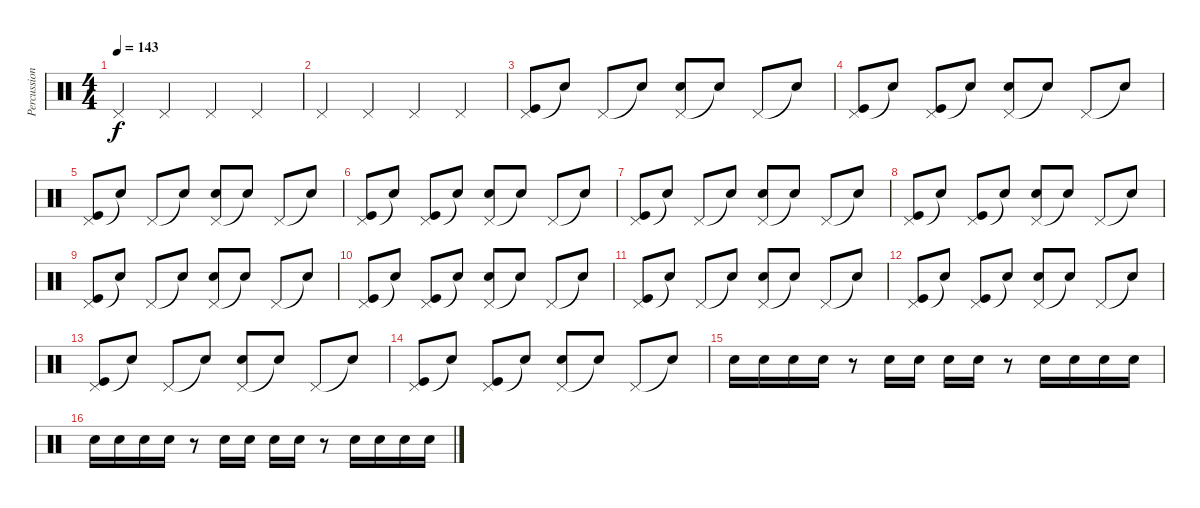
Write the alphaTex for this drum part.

\track ("Percussions" "Percussion") {instrument percussion}
\staff {score}
\articulation defaults
\ts (4 4)
\tempo 143
\clef neutral
\ks c "Pedal Hi-Hat (hit)".4{dy f} "Pedal Hi-Hat (hit)".4 "Pedal Hi-Hat (hit)".4 "Pedal Hi-Hat (hit)".4
|
"Pedal Hi-Hat (hit)".4 "Pedal Hi-Hat (hit)".4 "Pedal Hi-Hat (hit)".4 "Pedal Hi-Hat (hit)".4 |
("Pedal Hi-Hat (hit)" "Kick (hit)").8 "Snare (hit)"{t}.8 "Pedal Hi-Hat (hit)".8 "Snare (hit)"{t}.8 ("Pedal Hi-Hat (hit)" "Snare (hit) 2").8 "Snare (hit)"{t}.8 "Pedal Hi-Hat (hit)".8 "Snare (hit)"{t}.8 |
("Pedal Hi-Hat (hit)" "Kick (hit)").8 "Snare (hit)"{t}.8 ("Pedal Hi-Hat (hit)" "Kick (hit)").8 "Snare (hit)"{t}.8 ("Pedal Hi-Hat (hit)" "Snare (hit) 2").8 "Snare (hit)"{t}.8 "Pedal Hi-Hat (hit)".8 "Snare (hit)"{t}.8 |
("Pedal Hi-Hat (hit)" "Kick (hit)").8 "Snare (hit)"{t}.8 "Pedal Hi-Hat (hit)".8 "Snare (hit)"{t}.8 ("Pedal Hi-Hat (hit)" "Snare (hit) 2").8 "Snare (hit)"{t}.8 "Pedal Hi-Hat (hit)".8 "Snare (hit)"{t}.8 |
("Pedal Hi-Hat (hit)" "Kick (hit)").8 "Snare (hit)"{t}.8 ("Pedal Hi-Hat (hit)" "Kick (hit)").8 "Snare (hit)"{t}.8 ("Pedal Hi-Hat (hit)" "Snare (hit) 2").8 "Snare (hit)"{t}.8 "Pedal Hi-Hat (hit)".8 "Snare (hit)"{t}.8 |
("Pedal Hi-Hat (hit)" "Kick (hit)").8 "Snare (hit)"{t}.8 "Pedal Hi-Hat (hit)".8 "Snare (hit)"{t}.8 ("Pedal Hi-Hat (hit)" "Snare (hit) 2").8 "Snare (hit)"{t}.8 "Pedal Hi-Hat (hit)".8 "Snare (hit)"{t}.8 |
("Pedal Hi-Hat (hit)" "Kick (hit)").8 "Snare (hit)"{t}.8 ("Pedal Hi-Hat (hit)" "Kick (hit)").8 "Snare (hit)"{t}.8 ("Pedal Hi-Hat (hit)" "Snare (hit) 2").8 "Snare (hit)"{t}.8 "Pedal Hi-Hat (hit)".8 "Snare (hit)"{t}.8 |
("Pedal Hi-Hat (hit)" "Kick (hit)").8 "Snare (hit)"{t}.8 "Pedal Hi-Hat (hit)".8 "Snare (hit)"{t}.8 ("Pedal Hi-Hat (hit)" "Snare (hit) 2").8 "Snare (hit)"{t}.8 "Pedal Hi-Hat (hit)".8 "Snare (hit)"{t}.8 |
("Pedal Hi-Hat (hit)" "Kick (hit)").8 "Snare (hit)"{t}.8 ("Pedal Hi-Hat (hit)" "Kick (hit)").8 "Snare (hit)"{t}.8 ("Pedal Hi-Hat (hit)" "Snare (hit) 2").8 "Snare (hit)"{t}.8 "Pedal Hi-Hat (hit)".8 "Snare (hit)"{t}.8 |
("Pedal Hi-Hat (hit)" "Kick (hit)").8 "Snare (hit)"{t}.8 "Pedal Hi-Hat (hit)".8 "Snare (hit)"{t}.8 ("Pedal Hi-Hat (hit)" "Snare (hit) 2").8 "Snare (hit)"{t}.8 "Pedal Hi-Hat (hit)".8 "Snare (hit)"{t}.8 |
("Pedal Hi-Hat (hit)" "Kick (hit)").8 "Snare (hit)"{t}.8 ("Pedal Hi-Hat (hit)" "Kick (hit)").8 "Snare (hit)"{t}.8 ("Pedal Hi-Hat (hit)" "Snare (hit) 2").8 "Snare (hit)"{t}.8 "Pedal Hi-Hat (hit)".8 "Snare (hit)"{t}.8 |
("Pedal Hi-Hat (hit)" "Kick (hit)").8 "Snare (hit)"{t}.8 "Pedal Hi-Hat (hit)".8 "Snare (hit)"{t}.8 ("Pedal Hi-Hat (hit)" "Snare (hit) 2").8 "Snare (hit)"{t}.8 "Pedal Hi-Hat (hit)".8 "Snare (hit)"{t}.8 |
("Pedal Hi-Hat (hit)" "Kick (hit)").8 "Snare (hit)"{t}.8 ("Pedal Hi-Hat (hit)" "Kick (hit)").8 "Snare (hit)"{t}.8 ("Pedal Hi-Hat (hit)" "Snare (hit) 2").8 "Snare (hit)"{t}.8 "Pedal Hi-Hat (hit)".8 "Snare (hit)"{t}.8 |
"Snare (hit) 2".16 "Snare (hit) 2".16 "Snare (hit) 2".16 "Snare (hit) 2".16 r.8 "Snare (hit) 2".16 "Snare (hit) 2".16 "Snare (hit) 2".16 "Snare (hit) 2".16 r.8 "Snare (hit) 2".16 "Snare (hit) 2".16 "Snare (hit) 2".16 "Snare (hit) 2".16 |
"Snare (hit) 2".16 "Snare (hit) 2".16 "Snare (hit) 2".16 "Snare (hit) 2".16 r.8 "Snare (hit) 2".16 "Snare (hit) 2".16 "Snare (hit) 2".16 "Snare (hit) 2".16 r.8 "Snare (hit) 2".16 "Snare (hit) 2".16 "Snare (hit) 2".16 "Snare (hit) 2".16
